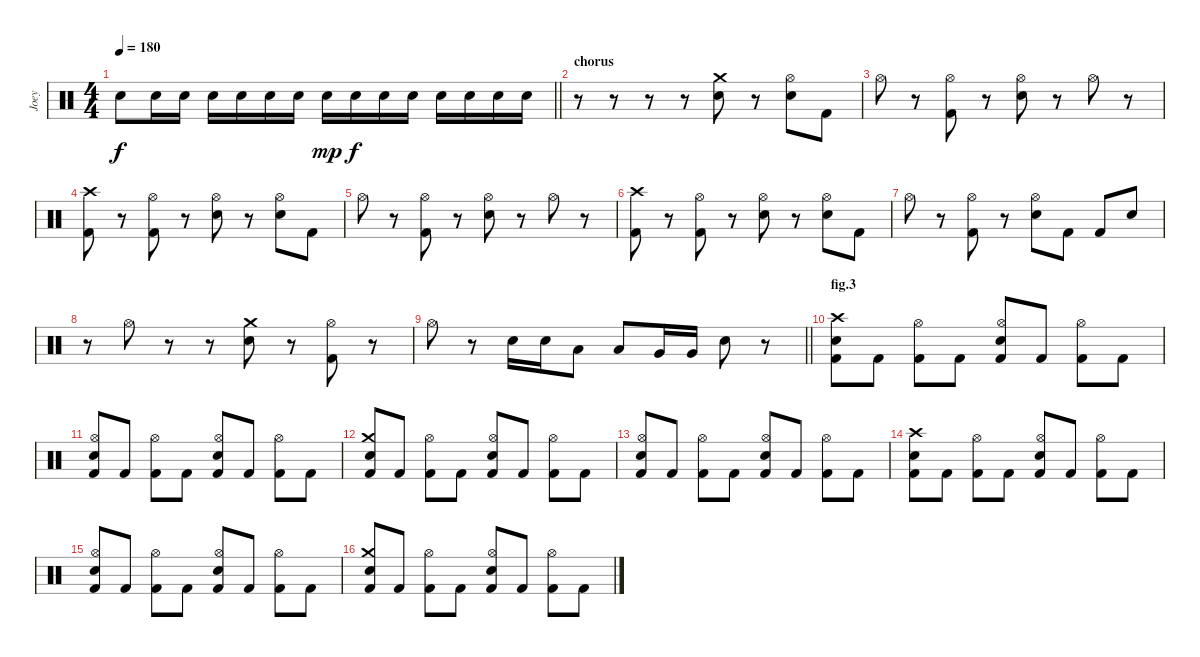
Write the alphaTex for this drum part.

\track ("Joey" "Joey") {instrument percussion}
\staff {score}
\articulation defaults
\ts (4 4)
\tempo 180
\clef neutral
\barLineRight lightlight
\ks c "Electric Snare (hit)".8{dy f} "Electric Snare (hit)".16 "Electric Snare (hit)".16 "Electric Snare (hit)".16 "Electric Snare (hit)".16 "Electric Snare (hit)".16 "Electric Snare (hit)".16 "Electric Snare (hit)".16{dy mp} "Electric Snare (hit)".16{dy f} "Electric Snare (hit)".16 "Electric Snare (hit)".16 "Electric Snare (hit)".16 "Electric Snare (hit)".16 "Electric Snare (hit)".16 "Electric Snare (hit)".16
|
\section ("" "chorus")
r.8 r.8 r.8 r.8 ("Crash medium (hit)" "Electric Snare (hit)").8 r.8 ("Hi-Hat (open)" "Electric Snare (hit)").8 "Kick (hit) 2".8 |
"Hi-Hat (open)".8 r.8 ("Hi-Hat (open)" "Kick (hit) 2").8 r.8 ("Hi-Hat (open)" "Electric Snare (hit)").8 r.8 "Hi-Hat (open)".8 r.8 |
("Crash high (hit)" "Kick (hit) 2").8 r.8 ("Hi-Hat (open)" "Kick (hit) 2").8 r.8 ("Hi-Hat (open)" "Electric Snare (hit)").8 r.8 ("Hi-Hat (open)" "Electric Snare (hit)").8 "Kick (hit) 2".8 |
"Hi-Hat (open)".8 r.8 ("Hi-Hat (open)" "Kick (hit) 2").8 r.8 ("Hi-Hat (open)" "Electric Snare (hit)").8 r.8 "Hi-Hat (open)".8 r.8 |
("Crash high (hit)" "Kick (hit) 2").8 r.8 ("Hi-Hat (open)" "Kick (hit) 2").8 r.8 ("Hi-Hat (open)" "Electric Snare (hit)").8 r.8 ("Hi-Hat (open)" "Electric Snare (hit)").8 "Kick (hit) 2".8 |
"Hi-Hat (open)".8 r.8 ("Hi-Hat (open)" "Kick (hit) 2").8 r.8 ("Hi-Hat (open)" "Electric Snare (hit)").8 "Kick (hit) 2".8 "Kick (hit) 2".8 "Electric Snare (hit)".8 |
r.8 "Hi-Hat (open)".8 r.8 r.8 ("Crash medium (hit)" "Electric Snare (hit)").8 r.8 ("Hi-Hat (open)" "Kick (hit) 2").8 r.8 |
\barLineRight lightlight "Hi-Hat (open)".8
r.8 "Electric Snare (hit)".16 "Electric Snare (hit)".16 "Low Tom (hit)".8 "Low Tom (hit)".8 "Very Low Tom (hit)".16 "Very Low Tom (hit)".16 "Electric Snare (hit)".8 r.8 |
\section ("" "fig.3")
("Crash high (hit)" "Electric Snare (hit)" "Kick (hit) 2").8 "Kick (hit) 2".8 ("Hi-Hat (open)" "Kick (hit) 2").8 "Kick (hit) 2".8 ("Hi-Hat (open)" "Electric Snare (hit)" "Kick (hit) 2").8 "Kick (hit) 2".8 ("Hi-Hat (open)" "Kick (hit) 2").8 "Kick (hit) 2".8 |
("Hi-Hat (open)" "Electric Snare (hit)" "Kick (hit) 2").8 "Kick (hit) 2".8 ("Hi-Hat (open)" "Kick (hit) 2").8 "Kick (hit) 2".8 ("Hi-Hat (open)" "Electric Snare (hit)" "Kick (hit) 2").8 "Kick (hit) 2".8 ("Hi-Hat (open)" "Kick (hit) 2").8 "Kick (hit) 2".8 |
("Crash medium (hit)" "Electric Snare (hit)" "Kick (hit) 2").8 "Kick (hit) 2".8 ("Hi-Hat (open)" "Kick (hit) 2").8 "Kick (hit) 2".8 ("Hi-Hat (open)" "Electric Snare (hit)" "Kick (hit) 2").8 "Kick (hit) 2".8 ("Hi-Hat (open)" "Kick (hit) 2").8 "Kick (hit) 2".8 |
("Hi-Hat (open)" "Electric Snare (hit)" "Kick (hit) 2").8 "Kick (hit) 2".8 ("Hi-Hat (open)" "Kick (hit) 2").8 "Kick (hit) 2".8 ("Hi-Hat (open)" "Electric Snare (hit)" "Kick (hit) 2").8 "Kick (hit) 2".8 ("Hi-Hat (open)" "Kick (hit) 2").8 "Kick (hit) 2".8 |
("Crash high (hit)" "Electric Snare (hit)" "Kick (hit) 2").8 "Kick (hit) 2".8 ("Hi-Hat (open)" "Kick (hit) 2").8 "Kick (hit) 2".8 ("Hi-Hat (open)" "Electric Snare (hit)" "Kick (hit) 2").8 "Kick (hit) 2".8 ("Hi-Hat (open)" "Kick (hit) 2").8 "Kick (hit) 2".8 |
("Hi-Hat (open)" "Electric Snare (hit)" "Kick (hit) 2").8 "Kick (hit) 2".8 ("Hi-Hat (open)" "Kick (hit) 2").8 "Kick (hit) 2".8 ("Hi-Hat (open)" "Electric Snare (hit)" "Kick (hit) 2").8 "Kick (hit) 2".8 ("Hi-Hat (open)" "Kick (hit) 2").8 "Kick (hit) 2".8 |
("Crash medium (hit)" "Electric Snare (hit)" "Kick (hit) 2").8 "Kick (hit) 2".8 ("Hi-Hat (open)" "Kick (hit) 2").8 "Kick (hit) 2".8 ("Hi-Hat (open)" "Electric Snare (hit)" "Kick (hit) 2").8 "Kick (hit) 2".8 ("Hi-Hat (open)" "Kick (hit) 2").8 "Kick (hit) 2".8
